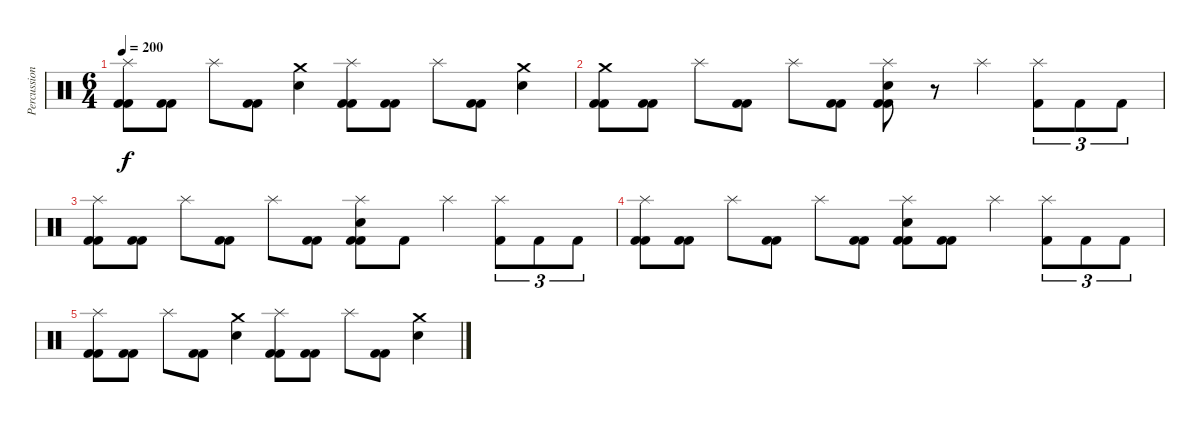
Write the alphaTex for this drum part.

\track ("Percussion" "Percussion") {instrument percussion}
\staff {score}
\articulation defaults
\ts (6 4)
\tempo 200
\clef neutral
\ks c
("Splash (hit)" "Kick (hit) 2" "Kick (hit) 2").8{dy f} ("Kick (hit) 2" "Kick (hit) 2").8 "Splash (hit)".8 ("Kick (hit) 2" "Kick (hit) 2").8 ("Crash medium (hit)" "Electric Snare (hit)").4 ("Splash (hit)" "Kick (hit) 2" "Kick (hit) 2").8 ("Kick (hit) 2" "Kick (hit) 2").8 "Splash (hit)".8 ("Kick (hit) 2" "Kick (hit) 2").8 ("Crash medium (hit)" "Electric Snare (hit)").4 |
("Crash medium (hit)" "Kick (hit) 2" "Kick (hit) 2").8 ("Kick (hit) 2" "Kick (hit) 2").8 "Splash (hit)".8 ("Kick (hit) 2" "Kick (hit) 2").8 "Splash (hit)".8 ("Kick (hit) 2" "Kick (hit) 2").8 ("Splash (hit)" "Electric Snare (hit)" "Kick (hit) 2" "Kick (hit) 2").8 r.8 "Splash (hit)".4 ("Splash (hit)" "Kick (hit) 2").8{tu (3 2)} "Kick (hit) 2".8{tu (3 2)} "Kick (hit) 2".8{tu (3 2)} |
("Splash (hit)" "Kick (hit) 2" "Kick (hit) 2").8 ("Kick (hit) 2" "Kick (hit) 2").8 "Splash (hit)".8 ("Kick (hit) 2" "Kick (hit) 2").8 "Splash (hit)".8 ("Kick (hit) 2" "Kick (hit) 2").8 ("Splash (hit)" "Electric Snare (hit)" "Kick (hit) 2" "Kick (hit) 2").8 "Kick (hit) 2".8 "Splash (hit)".4 ("Splash (hit)" "Kick (hit) 2").8{tu (3 2)} "Kick (hit) 2".8{tu (3 2)} "Kick (hit) 2".8{tu (3 2)} |
("Splash (hit)" "Kick (hit) 2" "Kick (hit) 2").8 ("Kick (hit) 2" "Kick (hit) 2").8 "Splash (hit)".8 ("Kick (hit) 2" "Kick (hit) 2").8 "Splash (hit)".8 ("Kick (hit) 2" "Kick (hit) 2").8 ("Splash (hit)" "Electric Snare (hit)" "Kick (hit) 2" "Kick (hit) 2").8 ("Kick (hit) 2" "Kick (hit) 2").8 "Splash (hit)".4 ("Splash (hit)" "Kick (hit) 2").8{tu (3 2)} "Kick (hit) 2".8{tu (3 2)} "Kick (hit) 2".8{tu (3 2)} |
("Splash (hit)" "Kick (hit) 2" "Kick (hit) 2").8 ("Kick (hit) 2" "Kick (hit) 2").8 "Splash (hit)".8 ("Kick (hit) 2" "Kick (hit) 2").8 ("Crash medium (hit)" "Electric Snare (hit)").4 ("Splash (hit)" "Kick (hit) 2" "Kick (hit) 2").8 ("Kick (hit) 2" "Kick (hit) 2").8 "Splash (hit)".8 ("Kick (hit) 2" "Kick (hit) 2").8 ("Crash medium (hit)" "Electric Snare (hit)").4
